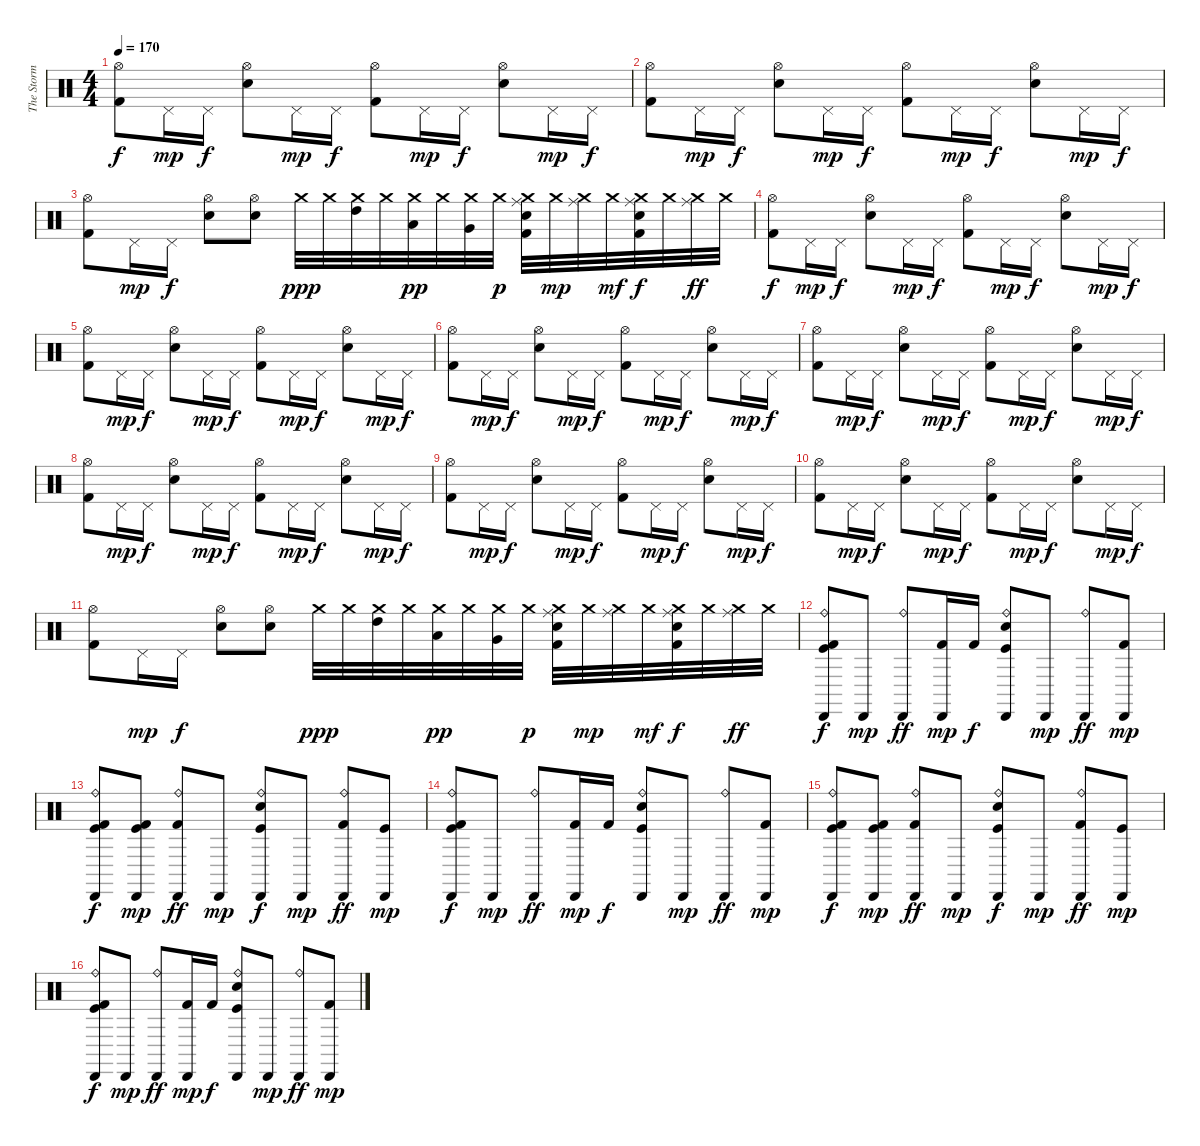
\track ("The Storm" "The Storm") {instrument percussion}
\staff {score}
\articulation defaults
\ts (4 4)
\tempo 170
\clef neutral
\ks c
("Hi-Hat (open)" "Kick (hit) 2").8{dy f} "Pedal Hi-Hat (hit)".16{dy mp} "Pedal Hi-Hat (hit)".16{dy f} ("Electric Snare (hit)" "Hi-Hat (open)").8 "Pedal Hi-Hat (hit)".16{dy mp} "Pedal Hi-Hat (hit)".16{dy f} ("Kick (hit) 2" "Hi-Hat (open)").8 "Pedal Hi-Hat (hit)".16{dy mp} "Pedal Hi-Hat (hit)".16{dy f} ("Electric Snare (hit)" "Hi-Hat (open)").8 "Pedal Hi-Hat (hit)".16{dy mp} "Pedal Hi-Hat (hit)".16{dy f} |
("Kick (hit) 2" "Hi-Hat (open)").8 "Pedal Hi-Hat (hit)".16{dy mp} "Pedal Hi-Hat (hit)".16{dy f} ("Hi-Hat (open)" "Electric Snare (hit)").8 "Pedal Hi-Hat (hit)".16{dy mp} "Pedal Hi-Hat (hit)".16{dy f} ("Kick (hit) 2" "Hi-Hat (open)").8 "Pedal Hi-Hat (hit)".16{dy mp} "Pedal Hi-Hat (hit)".16{dy f} ("Hi-Hat (open)" "Electric Snare (hit)").8 "Pedal Hi-Hat (hit)".16{dy mp} "Pedal Hi-Hat (hit)".16{dy f} |
("Hi-Hat (open)" "Kick (hit) 2").8 "Pedal Hi-Hat (hit)".16{dy mp} "Pedal Hi-Hat (hit)".16{dy f} ("Hi-Hat (open)" "Electric Snare (hit)").8 ("Electric Snare (hit)" "Hi-Hat (open)").8 "Crash medium (hit)".32{dy ppp} "Crash medium (hit)".32 ("High Tom (hit)" "Crash medium (hit)").32 "Crash medium (hit)".32 ("Low Tom (hit)" "Crash medium (hit)").32{dy pp} "Crash medium (hit)".32 ("Very Low Tom (hit)" "Crash medium (hit)").32 "Crash medium (hit)".32{dy p} ("Electric Snare (hit)" "Kick (hit) 2" "Ride (middle)" "Crash medium (hit)").32 "Crash medium (hit)".32{dy mp} ("Ride (middle)" "Crash medium (hit)").32 "Crash medium (hit)".32{dy mf} ("Ride (middle)" "Kick (hit) 2" "Electric Snare (hit)" "Crash medium (hit)").32{dy f} "Crash medium (hit)".32 ("Ride (middle)" "Crash medium (hit)").32{dy ff} "Crash medium (hit)".32 |
("Hi-Hat (open)" "Kick (hit) 2").8{dy f} "Pedal Hi-Hat (hit)".16{dy mp} "Pedal Hi-Hat (hit)".16{dy f} ("Electric Snare (hit)" "Hi-Hat (open)").8 "Pedal Hi-Hat (hit)".16{dy mp} "Pedal Hi-Hat (hit)".16{dy f} ("Kick (hit) 2" "Hi-Hat (open)").8 "Pedal Hi-Hat (hit)".16{dy mp} "Pedal Hi-Hat (hit)".16{dy f} ("Hi-Hat (open)" "Electric Snare (hit)").8 "Pedal Hi-Hat (hit)".16{dy mp} "Pedal Hi-Hat (hit)".16{dy f} |
("Hi-Hat (open)" "Kick (hit) 2").8 "Pedal Hi-Hat (hit)".16{dy mp} "Pedal Hi-Hat (hit)".16{dy f} ("Hi-Hat (open)" "Electric Snare (hit)").8 "Pedal Hi-Hat (hit)".16{dy mp} "Pedal Hi-Hat (hit)".16{dy f} ("Hi-Hat (open)" "Kick (hit) 2").8 "Pedal Hi-Hat (hit)".16{dy mp} "Pedal Hi-Hat (hit)".16{dy f} ("Hi-Hat (open)" "Electric Snare (hit)").8 "Pedal Hi-Hat (hit)".16{dy mp} "Pedal Hi-Hat (hit)".16{dy f} |
("Hi-Hat (open)" "Kick (hit) 2").8 "Pedal Hi-Hat (hit)".16{dy mp} "Pedal Hi-Hat (hit)".16{dy f} ("Hi-Hat (open)" "Electric Snare (hit)").8 "Pedal Hi-Hat (hit)".16{dy mp} "Pedal Hi-Hat (hit)".16{dy f} ("Hi-Hat (open)" "Kick (hit) 2").8 "Pedal Hi-Hat (hit)".16{dy mp} "Pedal Hi-Hat (hit)".16{dy f} ("Hi-Hat (open)" "Electric Snare (hit)").8 "Pedal Hi-Hat (hit)".16{dy mp} "Pedal Hi-Hat (hit)".16{dy f} |
("Kick (hit) 2" "Hi-Hat (open)").8 "Pedal Hi-Hat (hit)".16{dy mp} "Pedal Hi-Hat (hit)".16{dy f} ("Hi-Hat (open)" "Electric Snare (hit)").8 "Pedal Hi-Hat (hit)".16{dy mp} "Pedal Hi-Hat (hit)".16{dy f} ("Kick (hit) 2" "Hi-Hat (open)").8 "Pedal Hi-Hat (hit)".16{dy mp} "Pedal Hi-Hat (hit)".16{dy f} ("Hi-Hat (open)" "Electric Snare (hit)").8 "Pedal Hi-Hat (hit)".16{dy mp} "Pedal Hi-Hat (hit)".16{dy f} |
("Hi-Hat (open)" "Kick (hit) 2").8 "Pedal Hi-Hat (hit)".16{dy mp} "Pedal Hi-Hat (hit)".16{dy f} ("Hi-Hat (open)" "Electric Snare (hit)").8 "Pedal Hi-Hat (hit)".16{dy mp} "Pedal Hi-Hat (hit)".16{dy f} ("Kick (hit) 2" "Hi-Hat (open)").8 "Pedal Hi-Hat (hit)".16{dy mp} "Pedal Hi-Hat (hit)".16{dy f} ("Hi-Hat (open)" "Electric Snare (hit)").8 "Pedal Hi-Hat (hit)".16{dy mp} "Pedal Hi-Hat (hit)".16{dy f} |
("Hi-Hat (open)" "Kick (hit) 2").8 "Pedal Hi-Hat (hit)".16{dy mp} "Pedal Hi-Hat (hit)".16{dy f} ("Hi-Hat (open)" "Electric Snare (hit)").8 "Pedal Hi-Hat (hit)".16{dy mp} "Pedal Hi-Hat (hit)".16{dy f} ("Kick (hit) 2" "Hi-Hat (open)").8 "Pedal Hi-Hat (hit)".16{dy mp} "Pedal Hi-Hat (hit)".16{dy f} ("Hi-Hat (open)" "Electric Snare (hit)").8 "Pedal Hi-Hat (hit)".16{dy mp} "Pedal Hi-Hat (hit)".16{dy f} |
("Hi-Hat (open)" "Kick (hit) 2").8 "Pedal Hi-Hat (hit)".16{dy mp} "Pedal Hi-Hat (hit)".16{dy f} ("Hi-Hat (open)" "Electric Snare (hit)").8 "Pedal Hi-Hat (hit)".16{dy mp} "Pedal Hi-Hat (hit)".16{dy f} ("Kick (hit) 2" "Hi-Hat (open)").8 "Pedal Hi-Hat (hit)".16{dy mp} "Pedal Hi-Hat (hit)".16{dy f} ("Hi-Hat (open)" "Electric Snare (hit)").8 "Pedal Hi-Hat (hit)".16{dy mp} "Pedal Hi-Hat (hit)".16{dy f} |
("Kick (hit) 2" "Hi-Hat (open)").8 "Pedal Hi-Hat (hit)".16{dy mp} "Pedal Hi-Hat (hit)".16{dy f} ("Hi-Hat (open)" "Electric Snare (hit)").8 ("Electric Snare (hit)" "Hi-Hat (open)").8 "Crash medium (hit)".32{dy ppp} "Crash medium (hit)".32 ("High Tom (hit)" "Crash medium (hit)").32 "Crash medium (hit)".32 ("Low Tom (hit)" "Crash medium (hit)").32{dy pp} "Crash medium (hit)".32 ("Very Low Tom (hit)" "Crash medium (hit)").32 "Crash medium (hit)".32{dy p} ("Kick (hit) 2" "Ride (middle)" "Electric Snare (hit)" "Crash medium (hit)").32 "Crash medium (hit)".32{dy mp} ("Ride (middle)" "Crash medium (hit)").32 "Crash medium (hit)".32{dy mf} ("Kick (hit) 2" "Electric Snare (hit)" "Ride (middle)" "Crash medium (hit)").32{dy f} "Crash medium (hit)".32 ("Ride (middle)" "Crash medium (hit)").32{dy ff} "Crash medium (hit)".32 |
("Cabasa (hit)" "Kick (hit) 2" "Ride (bell)" "Kick (hit)").8{dy f} "Cabasa (hit)".8{dy mp} ("Cabasa (hit)" "Ride (bell)").8{dy ff} ("Kick (hit) 2" "Cabasa (hit)").16{dy mp} "Kick (hit) 2".16{dy f} ("Cabasa (hit)" "Electric Snare (hit)" "Kick (hit)" "Ride (bell)").8 "Cabasa (hit)".8{dy mp} ("Cabasa (hit)" "Ride (bell)").8{dy ff} ("Kick (hit) 2" "Cabasa (hit)").8{dy mp} |
("Cabasa (hit)" "Kick (hit)" "Kick (hit) 2" "Ride (bell)").8{dy f} ("Cabasa (hit)" "Kick (hit) 2" "Kick (hit)").8{dy mp} ("Kick (hit) 2" "Cabasa (hit)" "Ride (bell)").8{dy ff} "Cabasa (hit)".8{dy mp} ("Cabasa (hit)" "Electric Snare (hit)" "Kick (hit)" "Ride (bell)").8{dy f} "Cabasa (hit)".8{dy mp} ("Cabasa (hit)" "Ride (bell)" "Kick (hit) 2").8{dy ff} ("Cabasa (hit)" "Kick (hit)").8{dy mp} |
("Cabasa (hit)" "Kick (hit)" "Kick (hit) 2" "Ride (bell)").8{dy f} "Cabasa (hit)".8{dy mp} ("Cabasa (hit)" "Ride (bell)").8{dy ff} ("Cabasa (hit)" "Kick (hit) 2").16{dy mp} "Kick (hit) 2".16{dy f} ("Cabasa (hit)" "Electric Snare (hit)" "Ride (bell)" "Kick (hit)").8 "Cabasa (hit)".8{dy mp} ("Cabasa (hit)" "Ride (bell)").8{dy ff} ("Kick (hit) 2" "Cabasa (hit)").8{dy mp} |
("Cabasa (hit)" "Kick (hit)" "Kick (hit) 2" "Ride (bell)").8{dy f} ("Kick (hit) 2" "Kick (hit)" "Cabasa (hit)").8{dy mp} ("Cabasa (hit)" "Ride (bell)" "Kick (hit) 2").8{dy ff} "Cabasa (hit)".8{dy mp} ("Cabasa (hit)" "Electric Snare (hit)" "Ride (bell)" "Kick (hit)").8{dy f} "Cabasa (hit)".8{dy mp} ("Cabasa (hit)" "Kick (hit) 2" "Ride (bell)").8{dy ff} ("Cabasa (hit)" "Kick (hit)").8{dy mp} |
("Cabasa (hit)" "Kick (hit) 2" "Kick (hit)" "Ride (bell)").8{dy f} "Cabasa (hit)".8{dy mp} ("Cabasa (hit)" "Ride (bell)").8{dy ff} ("Kick (hit) 2" "Cabasa (hit)").16{dy mp} "Kick (hit) 2".16{dy f} ("Cabasa (hit)" "Electric Snare (hit)" "Ride (bell)" "Kick (hit)").8 "Cabasa (hit)".8{dy mp} ("Ride (bell)" "Cabasa (hit)").8{dy ff} ("Cabasa (hit)" "Kick (hit) 2").8{dy mp}
